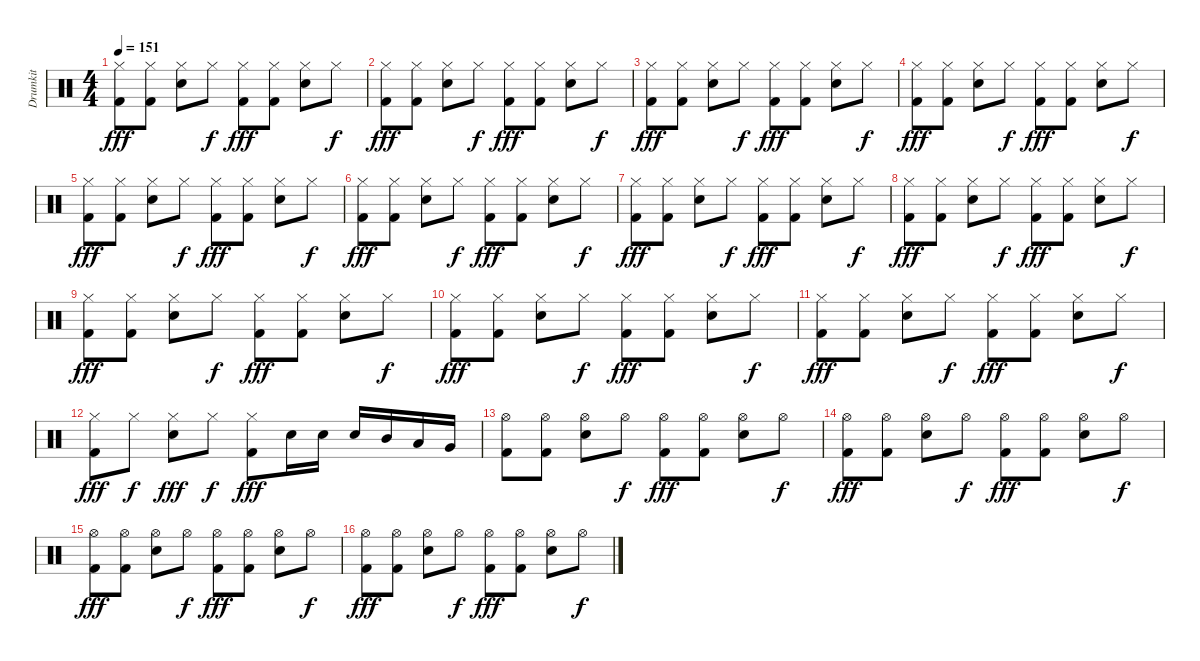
\track ("Drumkit" "Drumkit") {instrument percussion}
\staff {score}
\articulation defaults
\ts (4 4)
\tempo 151
\clef neutral
\ks c
("Kick (hit) 2" "Hi-Hat (closed)").8{dy fff} ("Hi-Hat (closed)" "Kick (hit) 2").8 ("Electric Snare (hit)" "Hi-Hat (closed)").8 "Hi-Hat (closed)".8{dy f} ("Kick (hit) 2" "Hi-Hat (closed)").8{dy fff} ("Kick (hit) 2" "Hi-Hat (closed)").8 ("Electric Snare (hit)" "Hi-Hat (closed)").8 "Hi-Hat (closed)".8{dy f} |
("Kick (hit) 2" "Hi-Hat (closed)").8{dy fff} ("Hi-Hat (closed)" "Kick (hit) 2").8 ("Electric Snare (hit)" "Hi-Hat (closed)").8 "Hi-Hat (closed)".8{dy f} ("Kick (hit) 2" "Hi-Hat (closed)").8{dy fff} ("Kick (hit) 2" "Hi-Hat (closed)").8 ("Electric Snare (hit)" "Hi-Hat (closed)").8 "Hi-Hat (closed)".8{dy f} |
("Kick (hit) 2" "Hi-Hat (closed)").8{dy fff} ("Hi-Hat (closed)" "Kick (hit) 2").8 ("Electric Snare (hit)" "Hi-Hat (closed)").8 "Hi-Hat (closed)".8{dy f} ("Kick (hit) 2" "Hi-Hat (closed)").8{dy fff} ("Kick (hit) 2" "Hi-Hat (closed)").8 ("Electric Snare (hit)" "Hi-Hat (closed)").8 "Hi-Hat (closed)".8{dy f} |
("Kick (hit) 2" "Hi-Hat (closed)").8{dy fff} ("Hi-Hat (closed)" "Kick (hit) 2").8 ("Electric Snare (hit)" "Hi-Hat (closed)").8 "Hi-Hat (closed)".8{dy f} ("Kick (hit) 2" "Hi-Hat (closed)").8{dy fff} ("Kick (hit) 2" "Hi-Hat (closed)").8 ("Electric Snare (hit)" "Hi-Hat (closed)").8 "Hi-Hat (closed)".8{dy f} |
("Kick (hit) 2" "Hi-Hat (closed)").8{dy fff} ("Hi-Hat (closed)" "Kick (hit) 2").8 ("Electric Snare (hit)" "Hi-Hat (closed)").8 "Hi-Hat (closed)".8{dy f} ("Kick (hit) 2" "Hi-Hat (closed)").8{dy fff} ("Kick (hit) 2" "Hi-Hat (closed)").8 ("Electric Snare (hit)" "Hi-Hat (closed)").8 "Hi-Hat (closed)".8{dy f} |
("Kick (hit) 2" "Hi-Hat (closed)").8{dy fff} ("Hi-Hat (closed)" "Kick (hit) 2").8 ("Electric Snare (hit)" "Hi-Hat (closed)").8 "Hi-Hat (closed)".8{dy f} ("Kick (hit) 2" "Hi-Hat (closed)").8{dy fff} ("Kick (hit) 2" "Hi-Hat (closed)").8 ("Electric Snare (hit)" "Hi-Hat (closed)").8 "Hi-Hat (closed)".8{dy f} |
("Kick (hit) 2" "Hi-Hat (closed)").8{dy fff} ("Hi-Hat (closed)" "Kick (hit) 2").8 ("Electric Snare (hit)" "Hi-Hat (closed)").8 "Hi-Hat (closed)".8{dy f} ("Kick (hit) 2" "Hi-Hat (closed)").8{dy fff} ("Kick (hit) 2" "Hi-Hat (closed)").8 ("Electric Snare (hit)" "Hi-Hat (closed)").8 "Hi-Hat (closed)".8{dy f} |
("Kick (hit) 2" "Hi-Hat (closed)").8{dy fff} ("Hi-Hat (closed)" "Kick (hit) 2").8 ("Electric Snare (hit)" "Hi-Hat (closed)").8 "Hi-Hat (closed)".8{dy f} ("Kick (hit) 2" "Hi-Hat (closed)").8{dy fff} ("Kick (hit) 2" "Hi-Hat (closed)").8 ("Electric Snare (hit)" "Hi-Hat (closed)").8 "Hi-Hat (closed)".8{dy f} |
("Kick (hit) 2" "Hi-Hat (closed)").8{dy fff} ("Hi-Hat (closed)" "Kick (hit) 2").8 ("Electric Snare (hit)" "Hi-Hat (closed)").8 "Hi-Hat (closed)".8{dy f} ("Kick (hit) 2" "Hi-Hat (closed)").8{dy fff} ("Kick (hit) 2" "Hi-Hat (closed)").8 ("Electric Snare (hit)" "Hi-Hat (closed)").8 "Hi-Hat (closed)".8{dy f} |
("Kick (hit) 2" "Hi-Hat (closed)").8{dy fff} ("Hi-Hat (closed)" "Kick (hit) 2").8 ("Electric Snare (hit)" "Hi-Hat (closed)").8 "Hi-Hat (closed)".8{dy f} ("Kick (hit) 2" "Hi-Hat (closed)").8{dy fff} ("Kick (hit) 2" "Hi-Hat (closed)").8 ("Electric Snare (hit)" "Hi-Hat (closed)").8 "Hi-Hat (closed)".8{dy f} |
("Kick (hit) 2" "Hi-Hat (closed)").8{dy fff} ("Hi-Hat (closed)" "Kick (hit) 2").8 ("Electric Snare (hit)" "Hi-Hat (closed)").8 "Hi-Hat (closed)".8{dy f} ("Kick (hit) 2" "Hi-Hat (closed)").8{dy fff} ("Kick (hit) 2" "Hi-Hat (closed)").8 ("Electric Snare (hit)" "Hi-Hat (closed)").8 "Hi-Hat (closed)".8{dy f} |
("Kick (hit) 2" "Hi-Hat (closed)").8{dy fff} "Hi-Hat (closed)".8{dy f} ("Electric Snare (hit)" "Hi-Hat (closed)").8{dy fff} "Hi-Hat (closed)".8{dy f} ("Kick (hit) 2" "Hi-Hat (closed)").8{dy fff} "Electric Snare (hit)".16 "Electric Snare (hit)".16 "Electric Snare (hit)".16 "Mid Tom (hit)".16 "Low Tom (hit)".16 "Very Low Tom (hit)".16 |
("Kick (hit) 2" "Hi-Hat (open)").8 ("Hi-Hat (open)" "Kick (hit) 2").8 ("Electric Snare (hit)" "Hi-Hat (open)").8 "Hi-Hat (open)".8{dy f} ("Kick (hit) 2" "Hi-Hat (open)").8{dy fff} ("Kick (hit) 2" "Hi-Hat (open)").8 ("Electric Snare (hit)" "Hi-Hat (open)").8 "Hi-Hat (open)".8{dy f} |
("Kick (hit) 2" "Hi-Hat (open)").8{dy fff} ("Hi-Hat (open)" "Kick (hit) 2").8 ("Electric Snare (hit)" "Hi-Hat (open)").8 "Hi-Hat (open)".8{dy f} ("Kick (hit) 2" "Hi-Hat (open)").8{dy fff} ("Kick (hit) 2" "Hi-Hat (open)").8 ("Electric Snare (hit)" "Hi-Hat (open)").8 "Hi-Hat (open)".8{dy f} |
("Kick (hit) 2" "Hi-Hat (open)").8{dy fff} ("Hi-Hat (open)" "Kick (hit) 2").8 ("Electric Snare (hit)" "Hi-Hat (open)").8 "Hi-Hat (open)".8{dy f} ("Kick (hit) 2" "Hi-Hat (open)").8{dy fff} ("Kick (hit) 2" "Hi-Hat (open)").8 ("Electric Snare (hit)" "Hi-Hat (open)").8 "Hi-Hat (open)".8{dy f} |
("Kick (hit) 2" "Hi-Hat (open)").8{dy fff} ("Hi-Hat (open)" "Kick (hit) 2").8 ("Electric Snare (hit)" "Hi-Hat (open)").8 "Hi-Hat (open)".8{dy f} ("Kick (hit) 2" "Hi-Hat (open)").8{dy fff} ("Kick (hit) 2" "Hi-Hat (open)").8 ("Electric Snare (hit)" "Hi-Hat (open)").8 "Hi-Hat (open)".8{dy f}
